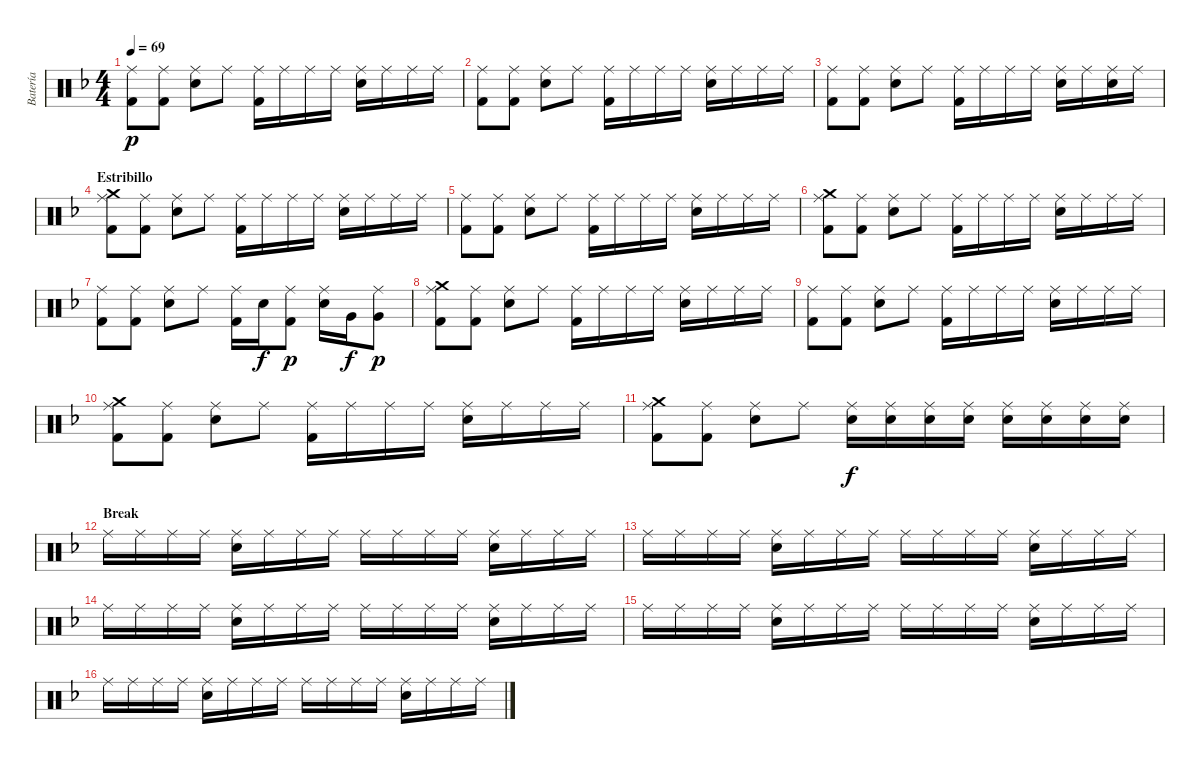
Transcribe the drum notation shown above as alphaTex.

\track ("Batería" "Batería") {instrument percussion}
\staff {score}
\articulation defaults
\ts (4 4)
\tempo 69
\clef neutral
\ks dminor
("Kick (hit) 2" "Ride (middle)").8{dy p} ("Kick (hit) 2" "Ride (middle)").8 ("Electric Snare (hit)" "Ride (middle)").8 "Ride (middle)".8 ("Kick (hit) 2" "Ride (middle)").16 "Ride (middle)".16 "Ride (middle)".16 "Ride (middle)".16 ("Electric Snare (hit)" "Ride (middle)").16 "Ride (middle)".16 "Ride (middle)".16 "Ride (middle)".16 |
("Kick (hit) 2" "Ride (middle)").8 ("Kick (hit) 2" "Ride (middle)").8 ("Electric Snare (hit)" "Ride (middle)").8 "Ride (middle)".8 ("Kick (hit) 2" "Ride (middle)").16 "Ride (middle)".16 "Ride (middle)".16 "Ride (middle)".16 ("Electric Snare (hit)" "Ride (middle)").16 "Ride (middle)".16 "Ride (middle)".16 "Ride (middle)".16 |
("Kick (hit) 2" "Ride (middle)").8 ("Kick (hit) 2" "Ride (middle)").8 ("Electric Snare (hit)" "Ride (middle)").8 "Ride (middle)".8 ("Kick (hit) 2" "Ride (middle)").16 "Ride (middle)".16 "Ride (middle)".16 "Ride (middle)".16 ("Electric Snare (hit)" "Ride (middle)").16 "Ride (middle)".16 ("Electric Snare (hit)" "Ride (middle)").16 "Ride (middle)".16 |
\section ("" "Estribillo")
("Crash medium (hit)" "Kick (hit) 2" "Ride (middle)").8 ("Kick (hit) 2" "Ride (middle)").8 ("Electric Snare (hit)" "Ride (middle)").8 "Ride (middle)".8 ("Kick (hit) 2" "Ride (middle)").16 "Ride (middle)".16 "Ride (middle)".16 "Ride (middle)".16 ("Electric Snare (hit)" "Ride (middle)").16 "Ride (middle)".16 "Ride (middle)".16 "Ride (middle)".16 |
("Kick (hit) 2" "Ride (middle)").8 ("Kick (hit) 2" "Ride (middle)").8 ("Electric Snare (hit)" "Ride (middle)").8 "Ride (middle)".8 ("Kick (hit) 2" "Ride (middle)").16 "Ride (middle)".16 "Ride (middle)".16 "Ride (middle)".16 ("Electric Snare (hit)" "Ride (middle)").16 "Ride (middle)".16 "Ride (middle)".16 "Ride (middle)".16 |
("Crash medium (hit)" "Kick (hit) 2" "Ride (middle)").8 ("Kick (hit) 2" "Ride (middle)").8 ("Electric Snare (hit)" "Ride (middle)").8 "Ride (middle)".8 ("Kick (hit) 2" "Ride (middle)").16 "Ride (middle)".16 "Ride (middle)".16 "Ride (middle)".16 ("Electric Snare (hit)" "Ride (middle)").16 "Ride (middle)".16 "Ride (middle)".16 "Ride (middle)".16 |
("Kick (hit) 2" "Ride (middle)").8 ("Kick (hit) 2" "Ride (middle)").8 ("Electric Snare (hit)" "Ride (middle)").8 "Ride (middle)".8 ("Kick (hit) 2" "Ride (middle)").16 "Electric Snare (hit)".16{dy f} ("Kick (hit) 2" "Ride (middle)").8{dy p} ("Electric Snare (hit)" "Ride (middle)").16 "Very Low Tom (hit)".16{dy f} ("Very Low Tom (hit)" "Ride (middle)").8{dy p} |
("Crash medium (hit)" "Kick (hit) 2" "Ride (middle)").8 ("Kick (hit) 2" "Ride (middle)").8 ("Electric Snare (hit)" "Ride (middle)").8 "Ride (middle)".8 ("Kick (hit) 2" "Ride (middle)").16 "Ride (middle)".16 "Ride (middle)".16 "Ride (middle)".16 ("Electric Snare (hit)" "Ride (middle)").16 "Ride (middle)".16 "Ride (middle)".16 "Ride (middle)".16 |
("Kick (hit) 2" "Ride (middle)").8 ("Kick (hit) 2" "Ride (middle)").8 ("Electric Snare (hit)" "Ride (middle)").8 "Ride (middle)".8 ("Kick (hit) 2" "Ride (middle)").16 "Ride (middle)".16 "Ride (middle)".16 "Ride (middle)".16 ("Electric Snare (hit)" "Ride (middle)").16 "Ride (middle)".16 "Ride (middle)".16 "Ride (middle)".16 |
("Crash medium (hit)" "Kick (hit) 2" "Ride (middle)").8 ("Kick (hit) 2" "Ride (middle)").8 ("Electric Snare (hit)" "Ride (middle)").8 "Ride (middle)".8 ("Kick (hit) 2" "Ride (middle)").16 "Ride (middle)".16 "Ride (middle)".16 "Ride (middle)".16 ("Electric Snare (hit)" "Ride (middle)").16 "Ride (middle)".16 "Ride (middle)".16 "Ride (middle)".16 |
("Crash medium (hit)" "Kick (hit) 2" "Ride (middle)").8 ("Kick (hit) 2" "Ride (middle)").8 ("Electric Snare (hit)" "Ride (middle)").8 "Ride (middle)".8 ("Electric Snare (hit)" "Ride (middle)").16{dy f} ("Electric Snare (hit)" "Ride (middle)").16 ("Electric Snare (hit)" "Ride (middle)").16 ("Electric Snare (hit)" "Ride (middle)").16 ("Electric Snare (hit)" "Ride (middle)").16 ("Electric Snare (hit)" "Ride (middle)").16 ("Electric Snare (hit)" "Ride (middle)").16 ("Electric Snare (hit)" "Ride (middle)").16 |
\section ("" "Break")
"Ride (middle)".16 "Ride (middle)".16 "Ride (middle)".16 "Ride (middle)".16 ("Electric Snare (hit)" "Ride (middle)").16 "Ride (middle)".16 "Ride (middle)".16 "Ride (middle)".16 "Ride (middle)".16 "Ride (middle)".16 "Ride (middle)".16 "Ride (middle)".16 ("Electric Snare (hit)" "Ride (middle)").16 "Ride (middle)".16 "Ride (middle)".16 "Ride (middle)".16 |
"Ride (middle)".16 "Ride (middle)".16 "Ride (middle)".16 "Ride (middle)".16 ("Electric Snare (hit)" "Ride (middle)").16 "Ride (middle)".16 "Ride (middle)".16 "Ride (middle)".16 "Ride (middle)".16 "Ride (middle)".16 "Ride (middle)".16 "Ride (middle)".16 ("Electric Snare (hit)" "Ride (middle)").16 "Ride (middle)".16 "Ride (middle)".16 "Ride (middle)".16 |
"Ride (middle)".16 "Ride (middle)".16 "Ride (middle)".16 "Ride (middle)".16 ("Electric Snare (hit)" "Ride (middle)").16 "Ride (middle)".16 "Ride (middle)".16 "Ride (middle)".16 "Ride (middle)".16 "Ride (middle)".16 "Ride (middle)".16 "Ride (middle)".16 ("Electric Snare (hit)" "Ride (middle)").16 "Ride (middle)".16 "Ride (middle)".16 "Ride (middle)".16 |
"Ride (middle)".16 "Ride (middle)".16 "Ride (middle)".16 "Ride (middle)".16 ("Electric Snare (hit)" "Ride (middle)").16 "Ride (middle)".16 "Ride (middle)".16 "Ride (middle)".16 "Ride (middle)".16 "Ride (middle)".16 "Ride (middle)".16 "Ride (middle)".16 ("Electric Snare (hit)" "Ride (middle)").16 "Ride (middle)".16 "Ride (middle)".16 "Ride (middle)".16 |
"Ride (middle)".16 "Ride (middle)".16 "Ride (middle)".16 "Ride (middle)".16 ("Electric Snare (hit)" "Ride (middle)").16 "Ride (middle)".16 "Ride (middle)".16 "Ride (middle)".16 "Ride (middle)".16 "Ride (middle)".16 "Ride (middle)".16 "Ride (middle)".16 ("Electric Snare (hit)" "Ride (middle)").16 "Ride (middle)".16 "Ride (middle)".16 "Ride (middle)".16
